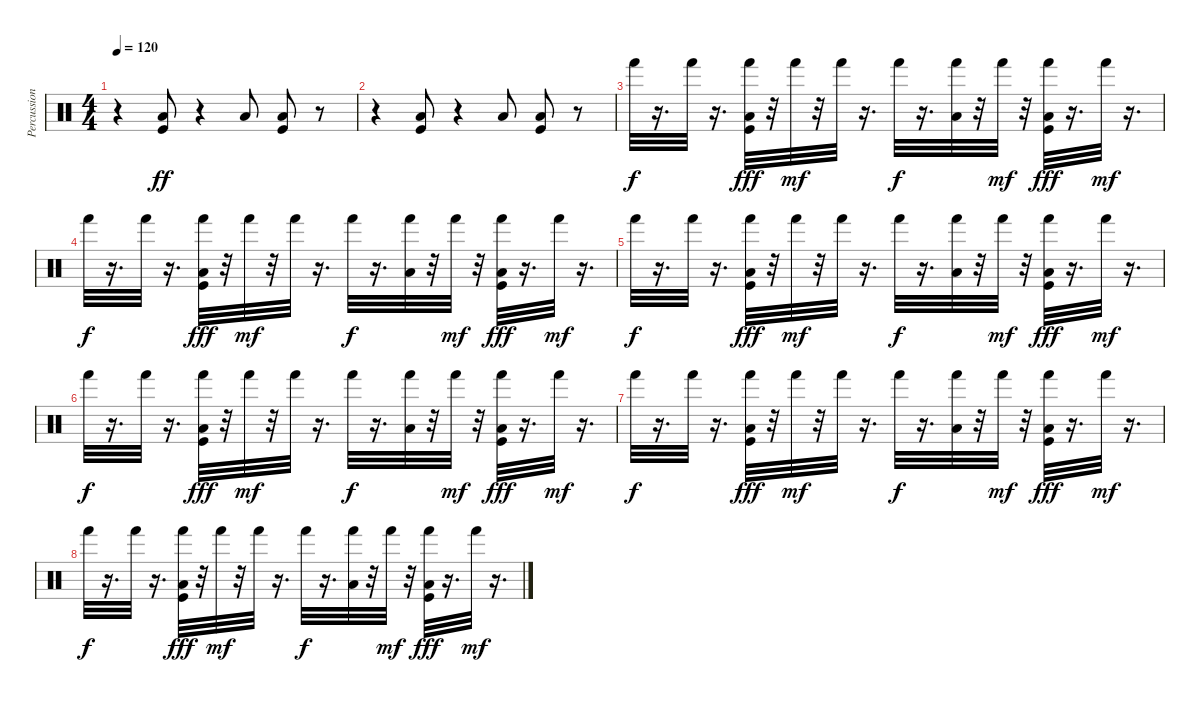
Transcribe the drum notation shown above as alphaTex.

\track ("Percussion" "Percussion") {instrument percussion}
\staff {score}
\articulation defaults
\ts (4 4)
\tempo 120
\clef neutral
\ks c
r.4{dy ff} ("Low Floor Tom (hit)" "Kick (hit)").8 r.4 "Low Tom (hit)".8 ("Low Floor Tom (hit)" "Kick (hit)").8 r.8 |
r.4 ("Low Floor Tom (hit)" "Kick (hit)").8 r.4 "Low Tom (hit)".8 ("Low Floor Tom (hit)" "Kick (hit)").8 r.8 |
"Hand (hit)".32{dy f} r.16{d} "Hand (hit)".32 r.16{d} ("Hand (hit)" "Low Floor Tom (hit)" "Kick (hit)").32{dy fff} r.32 "Hand (hit)".32{dy mf} r.32 "Hand (hit)".32 r.16{d} "Hand (hit)".32{dy f} r.16{d} ("Hand (hit)" "Low Tom (hit)").32 r.32 "Hand (hit)".32{dy mf} r.32 ("Hand (hit)" "Low Floor Tom (hit)" "Kick (hit)").32{dy fff} r.16{d} "Hand (hit)".32{dy mf} r.16{d} |
"Hand (hit)".32{dy f} r.16{d} "Hand (hit)".32 r.16{d} ("Hand (hit)" "Low Floor Tom (hit)" "Kick (hit)").32{dy fff} r.32 "Hand (hit)".32{dy mf} r.32 "Hand (hit)".32 r.16{d} "Hand (hit)".32{dy f} r.16{d} ("Hand (hit)" "Low Tom (hit)").32 r.32 "Hand (hit)".32{dy mf} r.32 ("Hand (hit)" "Low Floor Tom (hit)" "Kick (hit)").32{dy fff} r.16{d} "Hand (hit)".32{dy mf} r.16{d} |
"Hand (hit)".32{dy f} r.16{d} "Hand (hit)".32 r.16{d} ("Hand (hit)" "Low Floor Tom (hit)" "Kick (hit)").32{dy fff} r.32 "Hand (hit)".32{dy mf} r.32 "Hand (hit)".32 r.16{d} "Hand (hit)".32{dy f} r.16{d} ("Hand (hit)" "Low Tom (hit)").32 r.32 "Hand (hit)".32{dy mf} r.32 ("Hand (hit)" "Low Floor Tom (hit)" "Kick (hit)").32{dy fff} r.16{d} "Hand (hit)".32{dy mf} r.16{d} |
"Hand (hit)".32{dy f} r.16{d} "Hand (hit)".32 r.16{d} ("Hand (hit)" "Low Floor Tom (hit)" "Kick (hit)").32{dy fff} r.32 "Hand (hit)".32{dy mf} r.32 "Hand (hit)".32 r.16{d} "Hand (hit)".32{dy f} r.16{d} ("Hand (hit)" "Low Tom (hit)").32 r.32 "Hand (hit)".32{dy mf} r.32 ("Hand (hit)" "Low Floor Tom (hit)" "Kick (hit)").32{dy fff} r.16{d} "Hand (hit)".32{dy mf} r.16{d} |
"Hand (hit)".32{dy f} r.16{d} "Hand (hit)".32 r.16{d} ("Hand (hit)" "Low Floor Tom (hit)" "Kick (hit)").32{dy fff} r.32 "Hand (hit)".32{dy mf} r.32 "Hand (hit)".32 r.16{d} "Hand (hit)".32{dy f} r.16{d} ("Hand (hit)" "Low Tom (hit)").32 r.32 "Hand (hit)".32{dy mf} r.32 ("Hand (hit)" "Low Floor Tom (hit)" "Kick (hit)").32{dy fff} r.16{d} "Hand (hit)".32{dy mf} r.16{d} |
"Hand (hit)".32{dy f} r.16{d} "Hand (hit)".32 r.16{d} ("Hand (hit)" "Low Floor Tom (hit)" "Kick (hit)").32{dy fff} r.32 "Hand (hit)".32{dy mf} r.32 "Hand (hit)".32 r.16{d} "Hand (hit)".32{dy f} r.16{d} ("Hand (hit)" "Low Tom (hit)").32 r.32 "Hand (hit)".32{dy mf} r.32 ("Hand (hit)" "Low Floor Tom (hit)" "Kick (hit)").32{dy fff} r.16{d} "Hand (hit)".32{dy mf} r.16{d}
